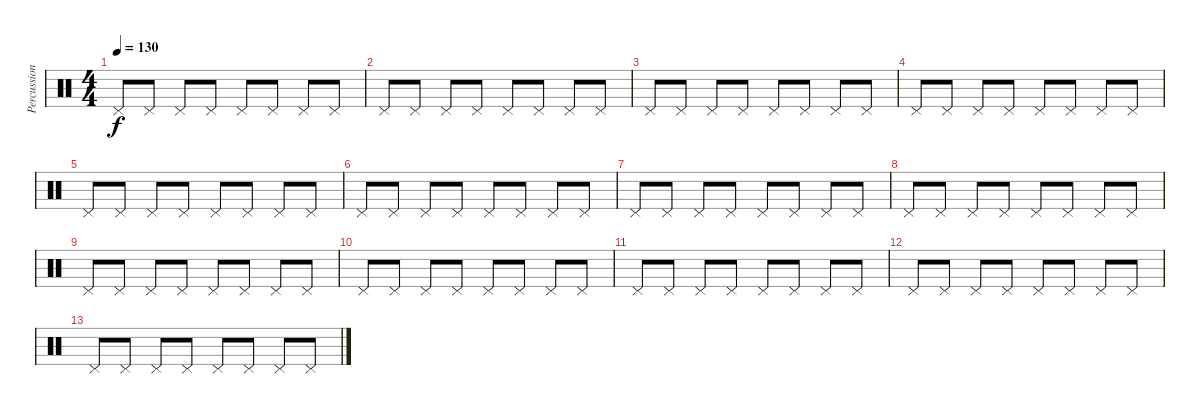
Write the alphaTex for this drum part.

\track ("Percussion" "Percussion") {instrument percussion}
\staff {score}
\articulation defaults
\ts (4 4)
\tempo 130
\clef neutral
\ks c "Pedal Hi-Hat (hit)".8{dy f} "Pedal Hi-Hat (hit)".8 "Pedal Hi-Hat (hit)".8 "Pedal Hi-Hat (hit)".8 "Pedal Hi-Hat (hit)".8 "Pedal Hi-Hat (hit)".8 "Pedal Hi-Hat (hit)".8 "Pedal Hi-Hat (hit)".8
|
"Pedal Hi-Hat (hit)".8 "Pedal Hi-Hat (hit)".8 "Pedal Hi-Hat (hit)".8 "Pedal Hi-Hat (hit)".8 "Pedal Hi-Hat (hit)".8 "Pedal Hi-Hat (hit)".8 "Pedal Hi-Hat (hit)".8 "Pedal Hi-Hat (hit)".8 |
"Pedal Hi-Hat (hit)".8 "Pedal Hi-Hat (hit)".8 "Pedal Hi-Hat (hit)".8 "Pedal Hi-Hat (hit)".8 "Pedal Hi-Hat (hit)".8 "Pedal Hi-Hat (hit)".8 "Pedal Hi-Hat (hit)".8 "Pedal Hi-Hat (hit)".8 |
"Pedal Hi-Hat (hit)".8 "Pedal Hi-Hat (hit)".8 "Pedal Hi-Hat (hit)".8 "Pedal Hi-Hat (hit)".8 "Pedal Hi-Hat (hit)".8 "Pedal Hi-Hat (hit)".8 "Pedal Hi-Hat (hit)".8 "Pedal Hi-Hat (hit)".8 |
"Pedal Hi-Hat (hit)".8 "Pedal Hi-Hat (hit)".8 "Pedal Hi-Hat (hit)".8 "Pedal Hi-Hat (hit)".8 "Pedal Hi-Hat (hit)".8 "Pedal Hi-Hat (hit)".8 "Pedal Hi-Hat (hit)".8 "Pedal Hi-Hat (hit)".8 |
"Pedal Hi-Hat (hit)".8 "Pedal Hi-Hat (hit)".8 "Pedal Hi-Hat (hit)".8 "Pedal Hi-Hat (hit)".8 "Pedal Hi-Hat (hit)".8 "Pedal Hi-Hat (hit)".8 "Pedal Hi-Hat (hit)".8 "Pedal Hi-Hat (hit)".8 |
"Pedal Hi-Hat (hit)".8 "Pedal Hi-Hat (hit)".8 "Pedal Hi-Hat (hit)".8 "Pedal Hi-Hat (hit)".8 "Pedal Hi-Hat (hit)".8 "Pedal Hi-Hat (hit)".8 "Pedal Hi-Hat (hit)".8 "Pedal Hi-Hat (hit)".8 |
"Pedal Hi-Hat (hit)".8 "Pedal Hi-Hat (hit)".8 "Pedal Hi-Hat (hit)".8 "Pedal Hi-Hat (hit)".8 "Pedal Hi-Hat (hit)".8 "Pedal Hi-Hat (hit)".8 "Pedal Hi-Hat (hit)".8 "Pedal Hi-Hat (hit)".8 |
"Pedal Hi-Hat (hit)".8 "Pedal Hi-Hat (hit)".8 "Pedal Hi-Hat (hit)".8 "Pedal Hi-Hat (hit)".8 "Pedal Hi-Hat (hit)".8 "Pedal Hi-Hat (hit)".8 "Pedal Hi-Hat (hit)".8 "Pedal Hi-Hat (hit)".8 |
"Pedal Hi-Hat (hit)".8 "Pedal Hi-Hat (hit)".8 "Pedal Hi-Hat (hit)".8 "Pedal Hi-Hat (hit)".8 "Pedal Hi-Hat (hit)".8 "Pedal Hi-Hat (hit)".8 "Pedal Hi-Hat (hit)".8 "Pedal Hi-Hat (hit)".8 |
"Pedal Hi-Hat (hit)".8 "Pedal Hi-Hat (hit)".8 "Pedal Hi-Hat (hit)".8 "Pedal Hi-Hat (hit)".8 "Pedal Hi-Hat (hit)".8 "Pedal Hi-Hat (hit)".8 "Pedal Hi-Hat (hit)".8 "Pedal Hi-Hat (hit)".8 |
"Pedal Hi-Hat (hit)".8 "Pedal Hi-Hat (hit)".8 "Pedal Hi-Hat (hit)".8 "Pedal Hi-Hat (hit)".8 "Pedal Hi-Hat (hit)".8 "Pedal Hi-Hat (hit)".8 "Pedal Hi-Hat (hit)".8 "Pedal Hi-Hat (hit)".8 |
"Pedal Hi-Hat (hit)".8 "Pedal Hi-Hat (hit)".8 "Pedal Hi-Hat (hit)".8 "Pedal Hi-Hat (hit)".8 "Pedal Hi-Hat (hit)".8 "Pedal Hi-Hat (hit)".8 "Pedal Hi-Hat (hit)".8 "Pedal Hi-Hat (hit)".8
